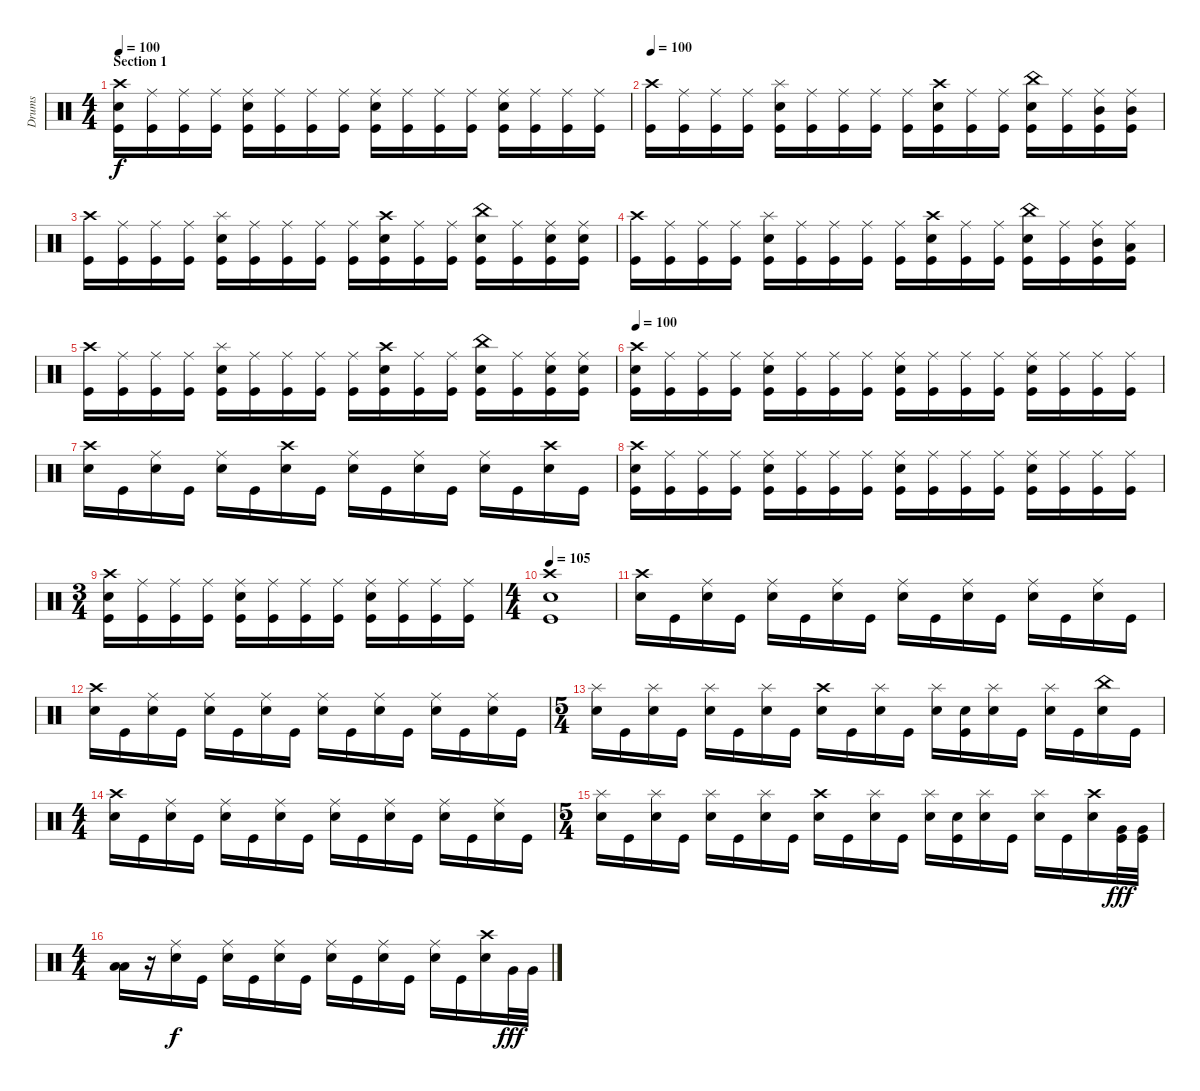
\track ("Drums" "Drums") {instrument percussion}
\staff {score}
\articulation defaults
\ts (4 4)
\section ("" "Section 1")
\tempo 100
\clef neutral
\ks c
("Crash high (hit)" "Electric Snare (hit)" "Kick (hit)").16{dy f} ("Ride (middle)" "Kick (hit)").16 ("Ride (middle)" "Kick (hit)").16 ("Ride (middle)" "Kick (hit)").16 ("Ride (middle)" "Electric Snare (hit)" "Kick (hit)").16 ("Ride (middle)" "Kick (hit)").16 ("Ride (middle)" "Kick (hit)").16 ("Ride (middle)" "Kick (hit)").16 ("Ride (middle)" "Electric Snare (hit)" "Kick (hit)").16 ("Ride (middle)" "Kick (hit)").16 ("Ride (middle)" "Kick (hit)").16 ("Ride (middle)" "Kick (hit)").16 ("Ride (middle)" "Electric Snare (hit)" "Kick (hit)").16 ("Ride (middle)" "Kick (hit)").16 ("Ride (middle)" "Kick (hit)").16 ("Ride (middle)" "Kick (hit)").16 |
\tempo 100
("Crash high (hit)" "Kick (hit)").16 ("Ride (middle)" "Kick (hit)").16 ("Ride (middle)" "Kick (hit)").16 ("Ride (middle)" "Kick (hit)").16 ("Splash (hit)" "Electric Snare (hit)" "Kick (hit)").16 ("Ride (middle)" "Kick (hit)").16 ("Ride (middle)" "Kick (hit)").16 ("Ride (middle)" "Kick (hit)").16 ("Ride (middle)" "Kick (hit)").16 ("Crash high (hit)" "Electric Snare (hit)" "Kick (hit)").16 ("Ride (middle)" "Kick (hit)").16 ("Ride (middle)" "Kick (hit)").16 ("China (hit)" "Electric Snare (hit)" "Kick (hit)").16 ("Ride (middle)" "Kick (hit)").16 ("Ride (middle)" "Mid Tom (hit)" "Kick (hit)").16 ("Ride (middle)" "Mid Tom (hit)" "Kick (hit)").16 |
("Crash high (hit)" "Kick (hit)").16 ("Ride (middle)" "Kick (hit)").16 ("Ride (middle)" "Kick (hit)").16 ("Ride (middle)" "Kick (hit)").16 ("Splash (hit)" "Electric Snare (hit)" "Kick (hit)").16 ("Ride (middle)" "Kick (hit)").16 ("Ride (middle)" "Kick (hit)").16 ("Ride (middle)" "Kick (hit)").16 ("Ride (middle)" "Kick (hit)").16 ("Crash high (hit)" "Electric Snare (hit)" "Kick (hit)").16 ("Ride (middle)" "Kick (hit)").16 ("Ride (middle)" "Kick (hit)").16 ("China (hit)" "Electric Snare (hit)" "Kick (hit)").16 ("Ride (middle)" "Kick (hit)").16 ("Ride (middle)" "Electric Snare (hit)" "Kick (hit)").16 ("Ride (middle)" "Electric Snare (hit)" "Kick (hit)").16 |
("Crash high (hit)" "Kick (hit)").16 ("Ride (middle)" "Kick (hit)").16 ("Ride (middle)" "Kick (hit)").16 ("Ride (middle)" "Kick (hit)").16 ("Splash (hit)" "Electric Snare (hit)" "Kick (hit)").16 ("Ride (middle)" "Kick (hit)").16 ("Ride (middle)" "Kick (hit)").16 ("Ride (middle)" "Kick (hit)").16 ("Ride (middle)" "Kick (hit)").16 ("Crash high (hit)" "Electric Snare (hit)" "Kick (hit)").16 ("Ride (middle)" "Kick (hit)").16 ("Ride (middle)" "Kick (hit)").16 ("China (hit)" "Electric Snare (hit)" "Kick (hit)").16 ("Ride (middle)" "Kick (hit)").16 ("Ride (middle)" "Mid Tom (hit)" "Kick (hit)").16 ("Ride (middle)" "Low Tom (hit)" "Kick (hit)").16 |
("Crash high (hit)" "Kick (hit)").16 ("Ride (middle)" "Kick (hit)").16 ("Ride (middle)" "Kick (hit)").16 ("Ride (middle)" "Kick (hit)").16 ("Splash (hit)" "Electric Snare (hit)" "Kick (hit)").16 ("Ride (middle)" "Kick (hit)").16 ("Ride (middle)" "Kick (hit)").16 ("Ride (middle)" "Kick (hit)").16 ("Ride (middle)" "Kick (hit)").16 ("Crash high (hit)" "Electric Snare (hit)" "Kick (hit)").16 ("Ride (middle)" "Kick (hit)").16 ("Ride (middle)" "Kick (hit)").16 ("China (hit)" "Electric Snare (hit)" "Kick (hit)").16 ("Ride (middle)" "Kick (hit)").16 ("Ride (middle)" "Electric Snare (hit)" "Kick (hit)").16 ("Ride (middle)" "Electric Snare (hit)" "Kick (hit)").16 |
\tempo 100
("Crash high (hit)" "Electric Snare (hit)" "Kick (hit)").16 ("Ride (middle)" "Kick (hit)").16 ("Ride (middle)" "Kick (hit)").16 ("Ride (middle)" "Kick (hit)").16 ("Ride (middle)" "Electric Snare (hit)" "Kick (hit)").16 ("Ride (middle)" "Kick (hit)").16 ("Ride (middle)" "Kick (hit)").16 ("Ride (middle)" "Kick (hit)").16 ("Ride (middle)" "Electric Snare (hit)" "Kick (hit)").16 ("Ride (middle)" "Kick (hit)").16 ("Ride (middle)" "Kick (hit)").16 ("Ride (middle)" "Kick (hit)").16 ("Ride (middle)" "Electric Snare (hit)" "Kick (hit)").16 ("Ride (middle)" "Kick (hit)").16 ("Ride (middle)" "Kick (hit)").16 ("Ride (middle)" "Kick (hit)").16 |
("Crash high (hit)" "Electric Snare (hit)").16 "Kick (hit)".16 ("Ride (middle)" "Electric Snare (hit)").16 "Kick (hit)".16 ("Ride (middle)" "Electric Snare (hit)").16 "Kick (hit)".16 ("Crash high (hit)" "Electric Snare (hit)").16 "Kick (hit)".16 ("Ride (middle)" "Electric Snare (hit)").16 "Kick (hit)".16 ("Ride (middle)" "Electric Snare (hit)").16 "Kick (hit)".16 ("Ride (middle)" "Electric Snare (hit)").16 "Kick (hit)".16 ("Crash high (hit)" "Electric Snare (hit)").16 "Kick (hit)".16 |
("Crash high (hit)" "Electric Snare (hit)" "Kick (hit)").16 ("Ride (middle)" "Kick (hit)").16 ("Ride (middle)" "Kick (hit)").16 ("Ride (middle)" "Kick (hit)").16 ("Ride (middle)" "Electric Snare (hit)" "Kick (hit)").16 ("Ride (middle)" "Kick (hit)").16 ("Ride (middle)" "Kick (hit)").16 ("Ride (middle)" "Kick (hit)").16 ("Ride (middle)" "Electric Snare (hit)" "Kick (hit)").16 ("Ride (middle)" "Kick (hit)").16 ("Ride (middle)" "Kick (hit)").16 ("Ride (middle)" "Kick (hit)").16 ("Ride (middle)" "Electric Snare (hit)" "Kick (hit)").16 ("Ride (middle)" "Kick (hit)").16 ("Ride (middle)" "Kick (hit)").16 ("Ride (middle)" "Kick (hit)").16 |
\ts (3 4)
("Crash high (hit)" "Electric Snare (hit)" "Kick (hit)").16 ("Ride (middle)" "Kick (hit)").16 ("Ride (middle)" "Kick (hit)").16 ("Ride (middle)" "Kick (hit)").16 ("Ride (middle)" "Electric Snare (hit)" "Kick (hit)").16 ("Ride (middle)" "Kick (hit)").16 ("Ride (middle)" "Kick (hit)").16 ("Ride (middle)" "Kick (hit)").16 ("Ride (middle)" "Electric Snare (hit)" "Kick (hit)").16 ("Ride (middle)" "Kick (hit)").16 ("Ride (middle)" "Kick (hit)").16 ("Ride (middle)" "Kick (hit)").16 |
\ts (4 4)
\tempo 105
("Crash high (hit)" "Electric Snare (hit)" "Kick (hit)").1 |
("Crash high (hit)" "Electric Snare (hit)").16 "Kick (hit)".16 ("Ride (middle)" "Electric Snare (hit)").16 "Kick (hit)".16 ("Ride (middle)" "Electric Snare (hit)").16 "Kick (hit)".16 ("Ride (middle)" "Electric Snare (hit)").16 "Kick (hit)".16 ("Ride (middle)" "Electric Snare (hit)").16 "Kick (hit)".16 ("Ride (middle)" "Electric Snare (hit)").16 "Kick (hit)".16 ("Ride (middle)" "Electric Snare (hit)").16 "Kick (hit)".16 ("Ride (middle)" "Electric Snare (hit)").16 "Kick (hit)".16 |
("Crash high (hit)" "Electric Snare (hit)").16 "Kick (hit)".16 ("Ride (middle)" "Electric Snare (hit)").16 "Kick (hit)".16 ("Ride (middle)" "Electric Snare (hit)").16 "Kick (hit)".16 ("Ride (middle)" "Electric Snare (hit)").16 "Kick (hit)".16 ("Ride (middle)" "Electric Snare (hit)").16 "Kick (hit)".16 ("Ride (middle)" "Electric Snare (hit)").16 "Kick (hit)".16 ("Ride (middle)" "Electric Snare (hit)").16 "Kick (hit)".16 ("Ride (middle)" "Electric Snare (hit)").16 "Kick (hit)".16 |
\ts (5 4)
("Splash (hit)" "Electric Snare (hit)").16 "Kick (hit)".16 ("Splash (hit)" "Electric Snare (hit)").16 "Kick (hit)".16 ("Splash (hit)" "Electric Snare (hit)").16 "Kick (hit)".16 ("Splash (hit)" "Electric Snare (hit)").16 "Kick (hit)".16 ("Crash high (hit)" "Electric Snare (hit)").16 "Kick (hit)".16 ("Splash (hit)" "Electric Snare (hit)").16 "Kick (hit)".16 ("Splash (hit)" "Electric Snare (hit)").16 ("Snare (hit)" "Kick (hit)").16 ("Splash (hit)" "Electric Snare (hit)").16 "Kick (hit)".16 ("Splash (hit)" "Electric Snare (hit)").16 "Kick (hit)".16 ("China (hit)" "Electric Snare (hit)").16 "Kick (hit)".16 |
\ts (4 4)
("Crash high (hit)" "Electric Snare (hit)").16 "Kick (hit)".16 ("Ride (middle)" "Electric Snare (hit)").16 "Kick (hit)".16 ("Ride (middle)" "Electric Snare (hit)").16 "Kick (hit)".16 ("Ride (middle)" "Electric Snare (hit)").16 "Kick (hit)".16 ("Ride (middle)" "Electric Snare (hit)").16 "Kick (hit)".16 ("Ride (middle)" "Electric Snare (hit)").16 "Kick (hit)".16 ("Ride (middle)" "Electric Snare (hit)").16 "Kick (hit)".16 ("Ride (middle)" "Electric Snare (hit)").16 "Kick (hit)".16 |
\ts (5 4)
("Splash (hit)" "Electric Snare (hit)").16 "Kick (hit)".16 ("Splash (hit)" "Electric Snare (hit)").16 "Kick (hit)".16 ("Splash (hit)" "Electric Snare (hit)").16 "Kick (hit)".16 ("Splash (hit)" "Electric Snare (hit)").16 "Kick (hit)".16 ("Crash high (hit)" "Electric Snare (hit)").16 "Kick (hit)".16 ("Splash (hit)" "Electric Snare (hit)").16 "Kick (hit)".16 ("Splash (hit)" "Electric Snare (hit)").16 ("Snare (hit)" "Kick (hit)").16 ("Splash (hit)" "Electric Snare (hit)").16 "Kick (hit)".16 ("Splash (hit)" "Electric Snare (hit)").16 "Kick (hit)".16 ("Crash high (hit)" "Electric Snare (hit)").16 ("Very Low Tom (hit)" "Kick (hit)").32{dy fff} ("Very Low Tom (hit)" "Kick (hit)").32 |
\ts (4 4)
("Low Floor Tom (hit)" "Low Floor Tom (hit)").16 r.16 ("Ride (middle)" "Electric Snare (hit)").16{dy f} "Kick (hit)".16 ("Ride (middle)" "Electric Snare (hit)").16 "Kick (hit)".16 ("Ride (middle)" "Electric Snare (hit)").16 "Kick (hit)".16 ("Ride (middle)" "Electric Snare (hit)").16 "Kick (hit)".16 ("Ride (middle)" "Electric Snare (hit)").16 "Kick (hit)".16 ("Ride (middle)" "Electric Snare (hit)").16 "Kick (hit)".16 ("Crash high (hit)" "Electric Snare (hit)").16 "Very Low Tom (hit)".32{dy fff} "Very Low Tom (hit)".32
